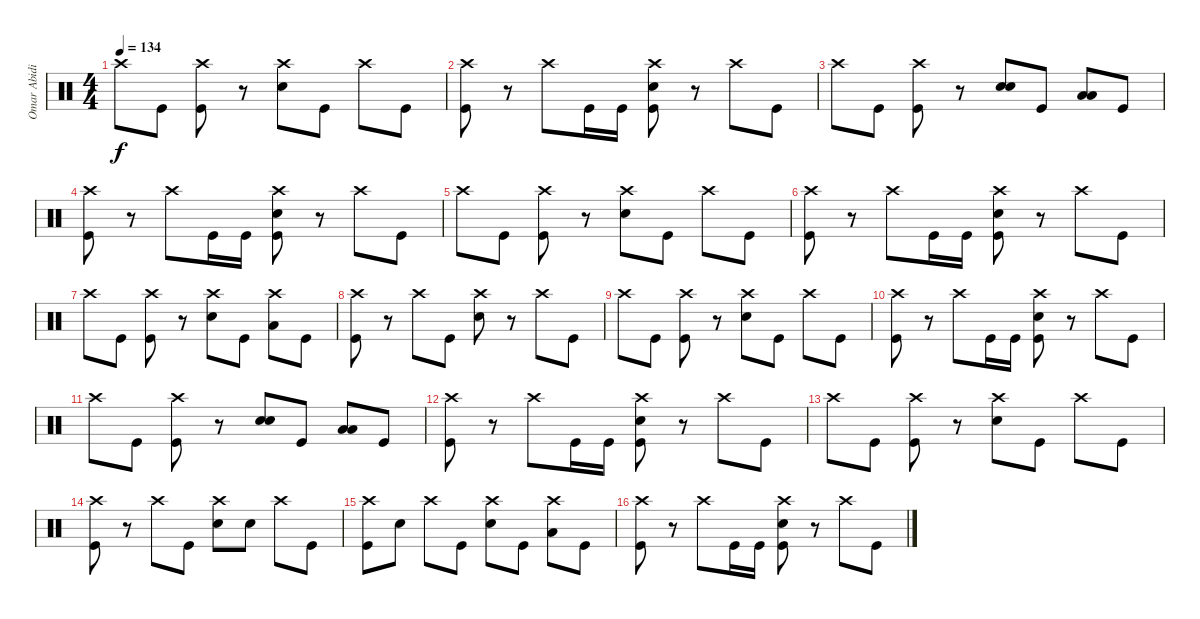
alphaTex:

\track ("Omar Abidi" "Omar Abidi") {instrument percussion}
\staff {score}
\articulation defaults
\ts (4 4)
\tempo 134
\clef neutral
\ks c "Crash high (hit)".8{dy f} "Kick (hit)".8
("Crash high (hit)" "Kick (hit)").8 r.8 ("Crash high (hit)" "Snare (hit) 2").8 "Kick (hit)".8 "Crash high (hit)".8 "Kick (hit)".8 |
("Crash high (hit)" "Kick (hit)").8 r.8 "Crash high (hit)".8 "Kick (hit)".16 "Kick (hit)".16 ("Crash high (hit)" "Snare (hit) 2" "Kick (hit)").8 r.8 "Crash high (hit)".8 "Kick (hit)".8 |
"Crash high (hit)".8 "Kick (hit)".8 ("Crash high (hit)" "Kick (hit)").8 r.8 ("Snare (hit) 2" "Snare (hit) 2").8 "Kick (hit)".8 ("Low Floor Tom (hit)" "Low Floor Tom (hit)").8 "Kick (hit)".8 |
("Crash high (hit)" "Kick (hit)").8 r.8 "Crash high (hit)".8 "Kick (hit)".16 "Kick (hit)".16 ("Crash high (hit)" "Snare (hit) 2" "Kick (hit)").8 r.8 "Crash high (hit)".8 "Kick (hit)".8 |
"Crash high (hit)".8 "Kick (hit)".8 ("Crash high (hit)" "Kick (hit)").8 r.8 ("Crash high (hit)" "Snare (hit) 2").8 "Kick (hit)".8 "Crash high (hit)".8 "Kick (hit)".8 |
("Crash high (hit)" "Kick (hit)").8 r.8 "Crash high (hit)".8 "Kick (hit)".16 "Kick (hit)".16 ("Crash high (hit)" "Snare (hit) 2" "Kick (hit)").8 r.8 "Crash high (hit)".8 "Kick (hit)".8 |
"Crash high (hit)".8 "Kick (hit)".8 ("Crash high (hit)" "Kick (hit)").8 r.8 ("Crash high (hit)" "Snare (hit) 2").8 "Kick (hit)".8 ("Crash high (hit)" "Low Floor Tom (hit)").8 "Kick (hit)".8 |
("Crash high (hit)" "Kick (hit)").8 r.8 "Crash high (hit)".8 "Kick (hit)".8 ("Crash high (hit)" "Snare (hit) 2").8 r.8 "Crash high (hit)".8 "Kick (hit)".8 |
"Crash high (hit)".8 "Kick (hit)".8 ("Crash high (hit)" "Kick (hit)").8 r.8 ("Crash high (hit)" "Snare (hit) 2").8 "Kick (hit)".8 "Crash high (hit)".8 "Kick (hit)".8 |
("Crash high (hit)" "Kick (hit)").8 r.8 "Crash high (hit)".8 "Kick (hit)".16 "Kick (hit)".16 ("Crash high (hit)" "Snare (hit) 2" "Kick (hit)").8 r.8 "Crash high (hit)".8 "Kick (hit)".8 |
"Crash high (hit)".8 "Kick (hit)".8 ("Crash high (hit)" "Kick (hit)").8 r.8 ("Snare (hit) 2" "Snare (hit) 2").8 "Kick (hit)".8 ("Low Floor Tom (hit)" "Low Floor Tom (hit)").8 "Kick (hit)".8 |
("Crash high (hit)" "Kick (hit)").8 r.8 "Crash high (hit)".8 "Kick (hit)".16 "Kick (hit)".16 ("Crash high (hit)" "Snare (hit) 2" "Kick (hit)").8 r.8 "Crash high (hit)".8 "Kick (hit)".8 |
"Crash high (hit)".8 "Kick (hit)".8 ("Crash high (hit)" "Kick (hit)").8 r.8 ("Crash high (hit)" "Snare (hit) 2").8 "Kick (hit)".8 "Crash high (hit)".8 "Kick (hit)".8 |
("Crash high (hit)" "Kick (hit)").8 r.8 "Crash high (hit)".8 "Kick (hit)".8 ("Crash high (hit)" "Snare (hit) 2").8 "Snare (hit) 2".8 "Crash high (hit)".8 "Kick (hit)".8 |
("Crash high (hit)" "Kick (hit)").8 "Snare (hit) 2".8 "Crash high (hit)".8 "Kick (hit)".8 ("Crash high (hit)" "Snare (hit) 2").8 "Kick (hit)".8 ("Crash high (hit)" "Low Floor Tom (hit)").8 "Kick (hit)".8 |
("Crash high (hit)" "Kick (hit)").8 r.8 "Crash high (hit)".8 "Kick (hit)".16 "Kick (hit)".16 ("Crash high (hit)" "Snare (hit) 2" "Kick (hit)").8 r.8 "Crash high (hit)".8 "Kick (hit)".8
